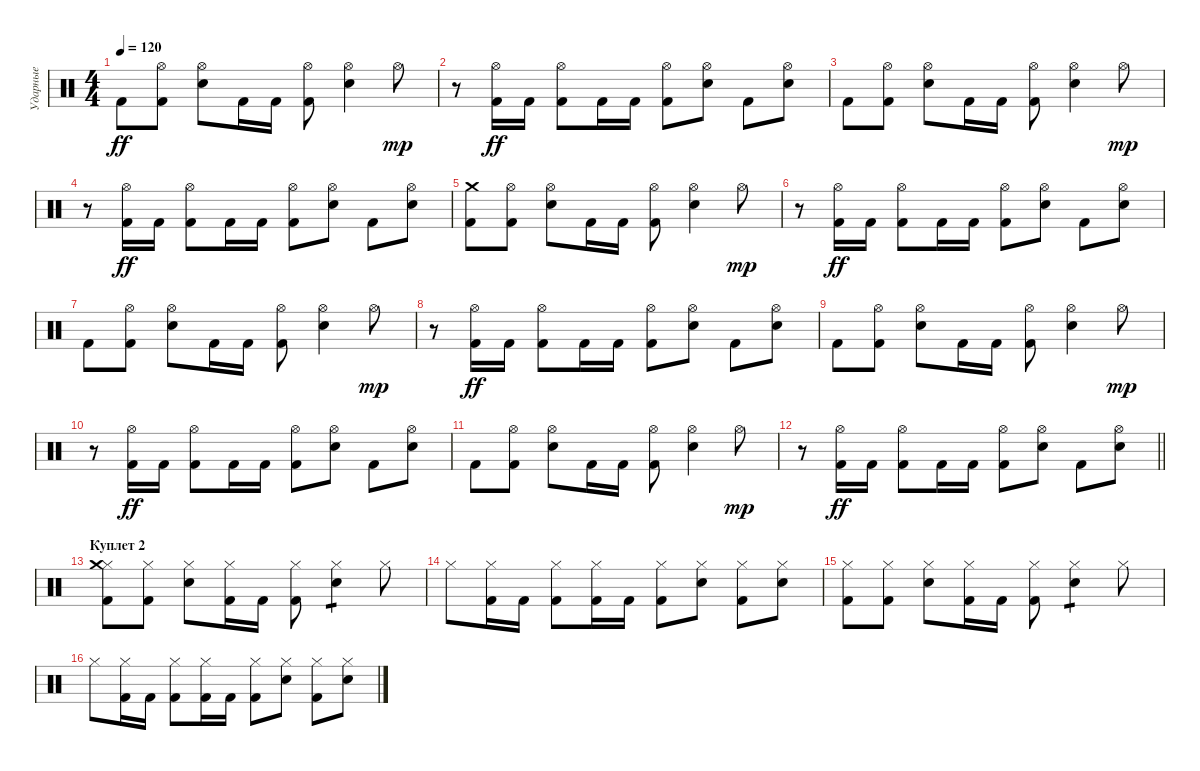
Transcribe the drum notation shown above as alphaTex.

\track ("Ударные" "Ударные") {instrument percussion}
\staff {score}
\articulation defaults
\ts (4 4)
\tempo 120
\clef neutral
\ks c "Kick (hit) 2".8{dy ff}
("Hi-Hat (open)" "Kick (hit) 2").8 ("Hi-Hat (open)" "Electric Snare (hit)").8 "Kick (hit) 2".16 "Kick (hit) 2".16 ("Hi-Hat (open)" "Kick (hit) 2").8 ("Hi-Hat (open)" "Electric Snare (hit)").4 "Hi-Hat (open)".8{dy mp} |
r.8 ("Hi-Hat (open)" "Kick (hit) 2").16{dy ff} "Kick (hit) 2".16 ("Hi-Hat (open)" "Kick (hit) 2").8 "Kick (hit) 2".16 "Kick (hit) 2".16 ("Hi-Hat (open)" "Kick (hit) 2").8 ("Hi-Hat (open)" "Electric Snare (hit)").8 "Kick (hit) 2".8 ("Hi-Hat (open)" "Electric Snare (hit)").8 |
"Kick (hit) 2".8 ("Hi-Hat (open)" "Kick (hit) 2").8 ("Hi-Hat (open)" "Electric Snare (hit)").8 "Kick (hit) 2".16 "Kick (hit) 2".16 ("Hi-Hat (open)" "Kick (hit) 2").8 ("Hi-Hat (open)" "Electric Snare (hit)").4 "Hi-Hat (open)".8{dy mp} |
r.8 ("Hi-Hat (open)" "Kick (hit) 2").16{dy ff} "Kick (hit) 2".16 ("Hi-Hat (open)" "Kick (hit) 2").8 "Kick (hit) 2".16 "Kick (hit) 2".16 ("Hi-Hat (open)" "Kick (hit) 2").8 ("Hi-Hat (open)" "Electric Snare (hit)").8 "Kick (hit) 2".8 ("Hi-Hat (open)" "Electric Snare (hit)").8 |
("Crash medium (hit)" "Kick (hit) 2").8 ("Hi-Hat (open)" "Kick (hit) 2").8 ("Hi-Hat (open)" "Electric Snare (hit)").8 "Kick (hit) 2".16 "Kick (hit) 2".16 ("Hi-Hat (open)" "Kick (hit) 2").8 ("Hi-Hat (open)" "Electric Snare (hit)").4 "Hi-Hat (open)".8{dy mp} |
r.8 ("Hi-Hat (open)" "Kick (hit) 2").16{dy ff} "Kick (hit) 2".16 ("Hi-Hat (open)" "Kick (hit) 2").8 "Kick (hit) 2".16 "Kick (hit) 2".16 ("Hi-Hat (open)" "Kick (hit) 2").8 ("Hi-Hat (open)" "Electric Snare (hit)").8 "Kick (hit) 2".8 ("Hi-Hat (open)" "Electric Snare (hit)").8 |
"Kick (hit) 2".8 ("Hi-Hat (open)" "Kick (hit) 2").8 ("Hi-Hat (open)" "Electric Snare (hit)").8 "Kick (hit) 2".16 "Kick (hit) 2".16 ("Hi-Hat (open)" "Kick (hit) 2").8 ("Hi-Hat (open)" "Electric Snare (hit)").4 "Hi-Hat (open)".8{dy mp} |
r.8 ("Hi-Hat (open)" "Kick (hit) 2").16{dy ff} "Kick (hit) 2".16 ("Hi-Hat (open)" "Kick (hit) 2").8 "Kick (hit) 2".16 "Kick (hit) 2".16 ("Hi-Hat (open)" "Kick (hit) 2").8 ("Hi-Hat (open)" "Electric Snare (hit)").8 "Kick (hit) 2".8 ("Hi-Hat (open)" "Electric Snare (hit)").8 |
"Kick (hit) 2".8 ("Hi-Hat (open)" "Kick (hit) 2").8 ("Hi-Hat (open)" "Electric Snare (hit)").8 "Kick (hit) 2".16 "Kick (hit) 2".16 ("Hi-Hat (open)" "Kick (hit) 2").8 ("Hi-Hat (open)" "Electric Snare (hit)").4 "Hi-Hat (open)".8{dy mp} |
r.8 ("Hi-Hat (open)" "Kick (hit) 2").16{dy ff} "Kick (hit) 2".16 ("Hi-Hat (open)" "Kick (hit) 2").8 "Kick (hit) 2".16 "Kick (hit) 2".16 ("Hi-Hat (open)" "Kick (hit) 2").8 ("Hi-Hat (open)" "Electric Snare (hit)").8 "Kick (hit) 2".8 ("Hi-Hat (open)" "Electric Snare (hit)").8 |
"Kick (hit) 2".8 ("Hi-Hat (open)" "Kick (hit) 2").8 ("Hi-Hat (open)" "Electric Snare (hit)").8 "Kick (hit) 2".16 "Kick (hit) 2".16 ("Hi-Hat (open)" "Kick (hit) 2").8 ("Hi-Hat (open)" "Electric Snare (hit)").4 "Hi-Hat (open)".8{dy mp} |
\barLineRight lightlight
r.8 ("Hi-Hat (open)" "Kick (hit) 2").16{dy ff} "Kick (hit) 2".16 ("Hi-Hat (open)" "Kick (hit) 2").8 "Kick (hit) 2".16 "Kick (hit) 2".16 ("Hi-Hat (open)" "Kick (hit) 2").8 ("Hi-Hat (open)" "Electric Snare (hit)").8 "Kick (hit) 2".8 ("Hi-Hat (open)" "Electric Snare (hit)").8 |
\section ("" "Куплет 2")
("Hi-Hat (closed)" "Crash medium (hit)" "Kick (hit) 2").8 ("Hi-Hat (closed)" "Kick (hit) 2").8 ("Hi-Hat (closed)" "Electric Snare (hit)").8 ("Hi-Hat (closed)" "Kick (hit) 2").16 "Kick (hit) 2".16 ("Hi-Hat (closed)" "Kick (hit) 2").8 ("Hi-Hat (closed)" "Electric Snare (hit)").4{tp 1} "Hi-Hat (closed)".8 |
"Hi-Hat (closed)".8 ("Hi-Hat (closed)" "Kick (hit) 2").16 "Kick (hit) 2".16 ("Hi-Hat (closed)" "Kick (hit) 2").8 ("Hi-Hat (closed)" "Kick (hit) 2").16 "Kick (hit) 2".16 ("Hi-Hat (closed)" "Kick (hit) 2").8 ("Hi-Hat (closed)" "Electric Snare (hit)").8 ("Hi-Hat (closed)" "Kick (hit) 2").8 ("Hi-Hat (closed)" "Electric Snare (hit)").8 |
("Hi-Hat (closed)" "Kick (hit) 2").8 ("Hi-Hat (closed)" "Kick (hit) 2").8 ("Hi-Hat (closed)" "Electric Snare (hit)").8 ("Hi-Hat (closed)" "Kick (hit) 2").16 "Kick (hit) 2".16 ("Hi-Hat (closed)" "Kick (hit) 2").8 ("Hi-Hat (closed)" "Electric Snare (hit)").4{tp 1} "Hi-Hat (closed)".8 |
"Hi-Hat (closed)".8 ("Hi-Hat (closed)" "Kick (hit) 2").16 "Kick (hit) 2".16 ("Hi-Hat (closed)" "Kick (hit) 2").8 ("Hi-Hat (closed)" "Kick (hit) 2").16 "Kick (hit) 2".16 ("Hi-Hat (closed)" "Kick (hit) 2").8 ("Hi-Hat (closed)" "Electric Snare (hit)").8 ("Hi-Hat (closed)" "Kick (hit) 2").8 ("Hi-Hat (closed)" "Electric Snare (hit)").8
